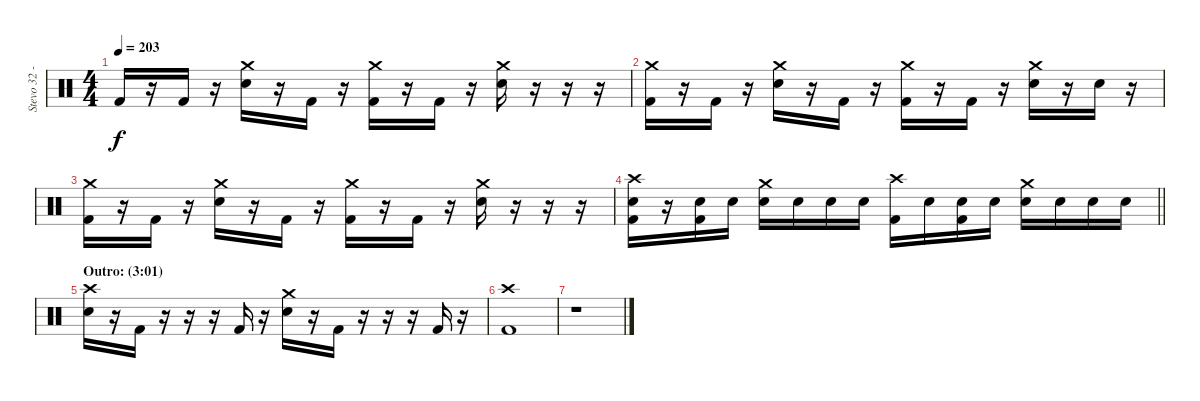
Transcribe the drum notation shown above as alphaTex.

\track ("Stevo 32 - Drums" "Stevo 32 -") {instrument percussion}
\staff {score}
\articulation defaults
\ts (4 4)
\tempo 203
\clef neutral
\ks c "Kick (hit) 2".16{dy f}
r.16 "Kick (hit) 2".16 r.16 ("Crash medium (hit)" "Snare (hit) 2").16 r.16 "Kick (hit) 2".16 r.16 ("Crash medium (hit)" "Kick (hit) 2").16 r.16 "Kick (hit) 2".16 r.16 ("Crash medium (hit)" "Snare (hit) 2").16 r.16 r.16 r.16 |
("Crash medium (hit)" "Kick (hit) 2").16 r.16 "Kick (hit) 2".16 r.16 ("Crash medium (hit)" "Snare (hit) 2").16 r.16 "Kick (hit) 2".16 r.16 ("Crash medium (hit)" "Kick (hit) 2").16 r.16 "Kick (hit) 2".16 r.16 ("Crash medium (hit)" "Snare (hit) 2").16 r.16 "Snare (hit) 2".16 r.16 |
("Crash medium (hit)" "Kick (hit) 2").16 r.16 "Kick (hit) 2".16 r.16 ("Crash medium (hit)" "Snare (hit) 2").16 r.16 "Kick (hit) 2".16 r.16 ("Crash medium (hit)" "Kick (hit) 2").16 r.16 "Kick (hit) 2".16 r.16 ("Crash medium (hit)" "Snare (hit) 2").16 r.16 r.16 r.16 |
\barLineRight lightlight
("Crash high (hit)" "Snare (hit) 2" "Kick (hit) 2").16 r.16 ("Snare (hit) 2" "Kick (hit) 2").16 "Snare (hit) 2".16 ("Crash medium (hit)" "Snare (hit) 2").16 "Snare (hit) 2".16 "Snare (hit) 2".16 "Snare (hit) 2".16 ("Crash high (hit)" "Kick (hit) 2").16 "Snare (hit) 2".16 ("Snare (hit) 2" "Kick (hit) 2").16 "Snare (hit) 2".16 ("Crash medium (hit)" "Snare (hit) 2").16 "Snare (hit) 2".16 "Snare (hit) 2".16 "Snare (hit) 2".16 |
\section ("" "Outro: (3:01)")
("Crash high (hit)" "Snare (hit) 2").16 r.16 "Kick (hit) 2".16 r.16 r.16 r.16 "Kick (hit) 2".16 r.16 ("Crash medium (hit)" "Snare (hit) 2").16 r.16 "Kick (hit) 2".16 r.16 r.16 r.16 "Kick (hit) 2".16 r.16 |
("Crash high (hit)" "Kick (hit) 2").1 |
r.1
